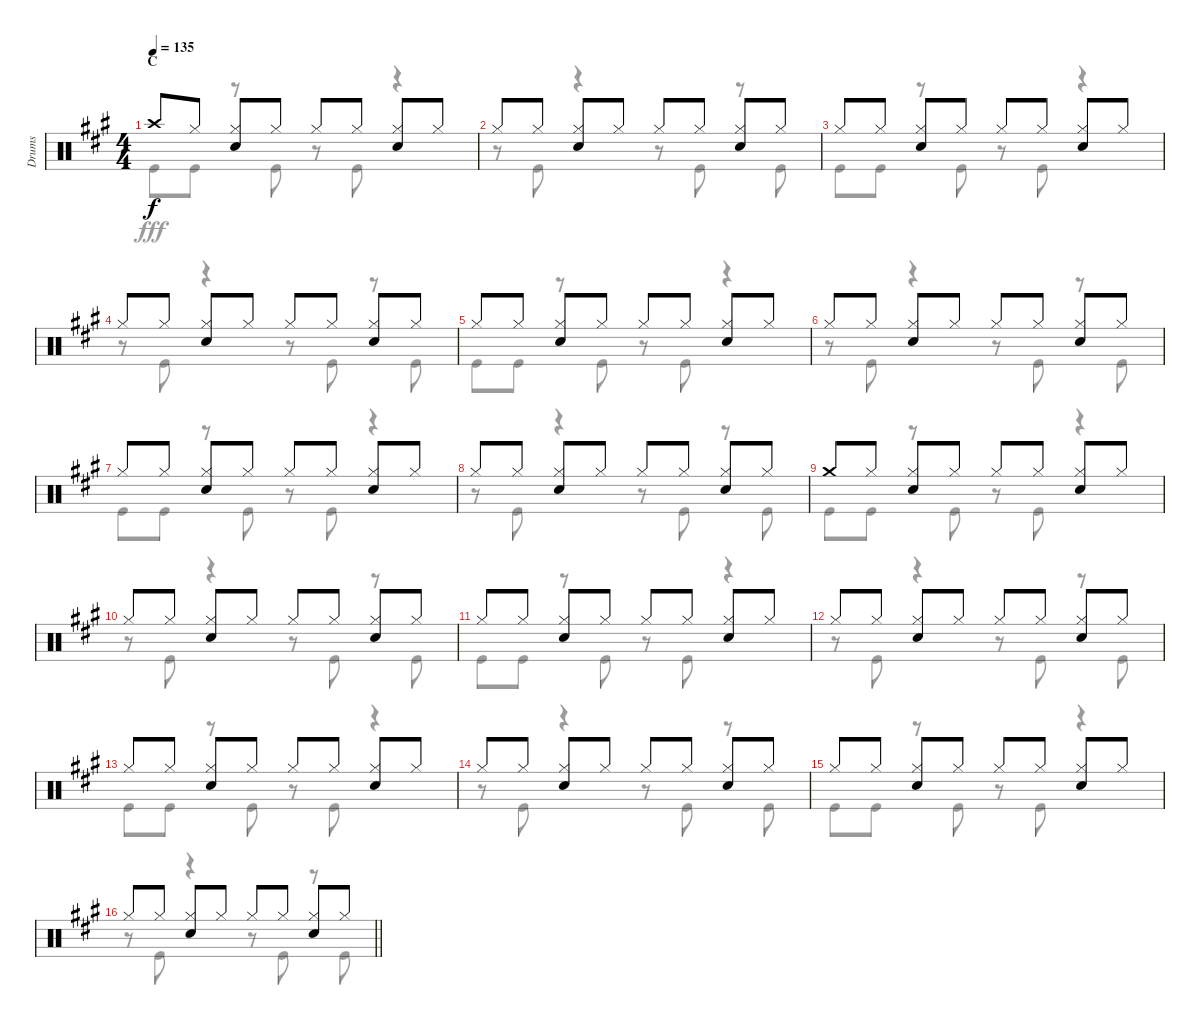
\track ("Drums" "Drums") {instrument percussion}
\staff {score}
\articulation defaults
\voice
\ts (4 4)
\section ("" "C")
\tempo 135
\clef neutral
\ks a "Crash high (hit)".8{dy f} "Hi-Hat (closed)".8
("Hi-Hat (closed)" "Snare (hit) 2").8 "Hi-Hat (closed)".8 "Hi-Hat (closed)".8 "Hi-Hat (closed)".8 ("Hi-Hat (closed)" "Snare (hit) 2").8 "Hi-Hat (closed)".8 |
"Hi-Hat (closed)".8 "Hi-Hat (closed)".8 ("Hi-Hat (closed)" "Snare (hit) 2").8 "Hi-Hat (closed)".8 "Hi-Hat (closed)".8 "Hi-Hat (closed)".8 ("Hi-Hat (closed)" "Snare (hit) 2").8 "Hi-Hat (closed)".8 |
"Hi-Hat (closed)".8 "Hi-Hat (closed)".8 ("Hi-Hat (closed)" "Snare (hit) 2").8 "Hi-Hat (closed)".8 "Hi-Hat (closed)".8 "Hi-Hat (closed)".8 ("Hi-Hat (closed)" "Snare (hit) 2").8 "Hi-Hat (closed)".8 |
"Hi-Hat (closed)".8 "Hi-Hat (closed)".8 ("Hi-Hat (closed)" "Snare (hit) 2").8 "Hi-Hat (closed)".8 "Hi-Hat (closed)".8 "Hi-Hat (closed)".8 ("Hi-Hat (closed)" "Snare (hit) 2").8 "Hi-Hat (closed)".8 |
"Hi-Hat (closed)".8 "Hi-Hat (closed)".8 ("Hi-Hat (closed)" "Snare (hit) 2").8 "Hi-Hat (closed)".8 "Hi-Hat (closed)".8 "Hi-Hat (closed)".8 ("Hi-Hat (closed)" "Snare (hit) 2").8 "Hi-Hat (closed)".8 |
"Hi-Hat (closed)".8 "Hi-Hat (closed)".8 ("Hi-Hat (closed)" "Snare (hit) 2").8 "Hi-Hat (closed)".8 "Hi-Hat (closed)".8 "Hi-Hat (closed)".8 ("Hi-Hat (closed)" "Snare (hit) 2").8 "Hi-Hat (closed)".8 |
"Hi-Hat (closed)".8 "Hi-Hat (closed)".8 ("Hi-Hat (closed)" "Snare (hit) 2").8 "Hi-Hat (closed)".8 "Hi-Hat (closed)".8 "Hi-Hat (closed)".8 ("Hi-Hat (closed)" "Snare (hit) 2").8 "Hi-Hat (closed)".8 |
"Hi-Hat (closed)".8 "Hi-Hat (closed)".8 ("Hi-Hat (closed)" "Snare (hit) 2").8 "Hi-Hat (closed)".8 "Hi-Hat (closed)".8 "Hi-Hat (closed)".8 ("Hi-Hat (closed)" "Snare (hit) 2").8 "Hi-Hat (closed)".8 |
"Crash medium (hit)".8 "Hi-Hat (closed)".8 ("Hi-Hat (closed)" "Snare (hit) 2").8 "Hi-Hat (closed)".8 "Hi-Hat (closed)".8 "Hi-Hat (closed)".8 ("Hi-Hat (closed)" "Snare (hit) 2").8 "Hi-Hat (closed)".8 |
"Hi-Hat (closed)".8 "Hi-Hat (closed)".8 ("Hi-Hat (closed)" "Snare (hit) 2").8 "Hi-Hat (closed)".8 "Hi-Hat (closed)".8 "Hi-Hat (closed)".8 ("Hi-Hat (closed)" "Snare (hit) 2").8 "Hi-Hat (closed)".8 |
"Hi-Hat (closed)".8 "Hi-Hat (closed)".8 ("Hi-Hat (closed)" "Snare (hit) 2").8 "Hi-Hat (closed)".8 "Hi-Hat (closed)".8 "Hi-Hat (closed)".8 ("Hi-Hat (closed)" "Snare (hit) 2").8 "Hi-Hat (closed)".8 |
"Hi-Hat (closed)".8 "Hi-Hat (closed)".8 ("Hi-Hat (closed)" "Snare (hit) 2").8 "Hi-Hat (closed)".8 "Hi-Hat (closed)".8 "Hi-Hat (closed)".8 ("Hi-Hat (closed)" "Snare (hit) 2").8 "Hi-Hat (closed)".8 |
"Hi-Hat (closed)".8 "Hi-Hat (closed)".8 ("Hi-Hat (closed)" "Snare (hit) 2").8 "Hi-Hat (closed)".8 "Hi-Hat (closed)".8 "Hi-Hat (closed)".8 ("Hi-Hat (closed)" "Snare (hit) 2").8 "Hi-Hat (closed)".8 |
"Hi-Hat (closed)".8 "Hi-Hat (closed)".8 ("Hi-Hat (closed)" "Snare (hit) 2").8 "Hi-Hat (closed)".8 "Hi-Hat (closed)".8 "Hi-Hat (closed)".8 ("Hi-Hat (closed)" "Snare (hit) 2").8 "Hi-Hat (closed)".8 |
"Hi-Hat (closed)".8 "Hi-Hat (closed)".8 ("Hi-Hat (closed)" "Snare (hit) 2").8 "Hi-Hat (closed)".8 "Hi-Hat (closed)".8 "Hi-Hat (closed)".8 ("Hi-Hat (closed)" "Snare (hit) 2").8 "Hi-Hat (closed)".8 |
\barLineRight lightlight "Hi-Hat (closed)".8 "Hi-Hat (closed)".8
("Hi-Hat (closed)" "Snare (hit) 2").8 "Hi-Hat (closed)".8 "Hi-Hat (closed)".8 "Hi-Hat (closed)".8 ("Hi-Hat (closed)" "Snare (hit) 2").8 "Hi-Hat (closed)".8
\voice
\clef neutral
\ottava regular
\simile none
\ks a "Kick (hit)".8{dy fff} "Kick (hit)".8
r.8 "Kick (hit)".8 r.8 "Kick (hit)".8 r.4 |
r.8 "Kick (hit)".8 r.4 r.8 "Kick (hit)".8 r.8 "Kick (hit)".8 |
"Kick (hit)".8 "Kick (hit)".8 r.8 "Kick (hit)".8 r.8 "Kick (hit)".8 r.4 |
r.8 "Kick (hit)".8 r.4 r.8 "Kick (hit)".8 r.8 "Kick (hit)".8 |
"Kick (hit)".8 "Kick (hit)".8 r.8 "Kick (hit)".8 r.8 "Kick (hit)".8 r.4 |
r.8 "Kick (hit)".8 r.4 r.8 "Kick (hit)".8 r.8 "Kick (hit)".8 |
"Kick (hit)".8 "Kick (hit)".8 r.8 "Kick (hit)".8 r.8 "Kick (hit)".8 r.4 |
r.8 "Kick (hit)".8 r.4 r.8 "Kick (hit)".8 r.8 "Kick (hit)".8 |
"Kick (hit)".8 "Kick (hit)".8 r.8 "Kick (hit)".8 r.8 "Kick (hit)".8 r.4 |
r.8 "Kick (hit)".8 r.4 r.8 "Kick (hit)".8 r.8 "Kick (hit)".8 |
"Kick (hit)".8 "Kick (hit)".8 r.8 "Kick (hit)".8 r.8 "Kick (hit)".8 r.4 |
r.8 "Kick (hit)".8 r.4 r.8 "Kick (hit)".8 r.8 "Kick (hit)".8 |
"Kick (hit)".8 "Kick (hit)".8 r.8 "Kick (hit)".8 r.8 "Kick (hit)".8 r.4 |
r.8 "Kick (hit)".8 r.4 r.8 "Kick (hit)".8 r.8 "Kick (hit)".8 |
"Kick (hit)".8 "Kick (hit)".8 r.8 "Kick (hit)".8 r.8 "Kick (hit)".8 r.4 |
\barLineRight lightlight
r.8 "Kick (hit)".8 r.4 r.8 "Kick (hit)".8 r.8 "Kick (hit)".8
